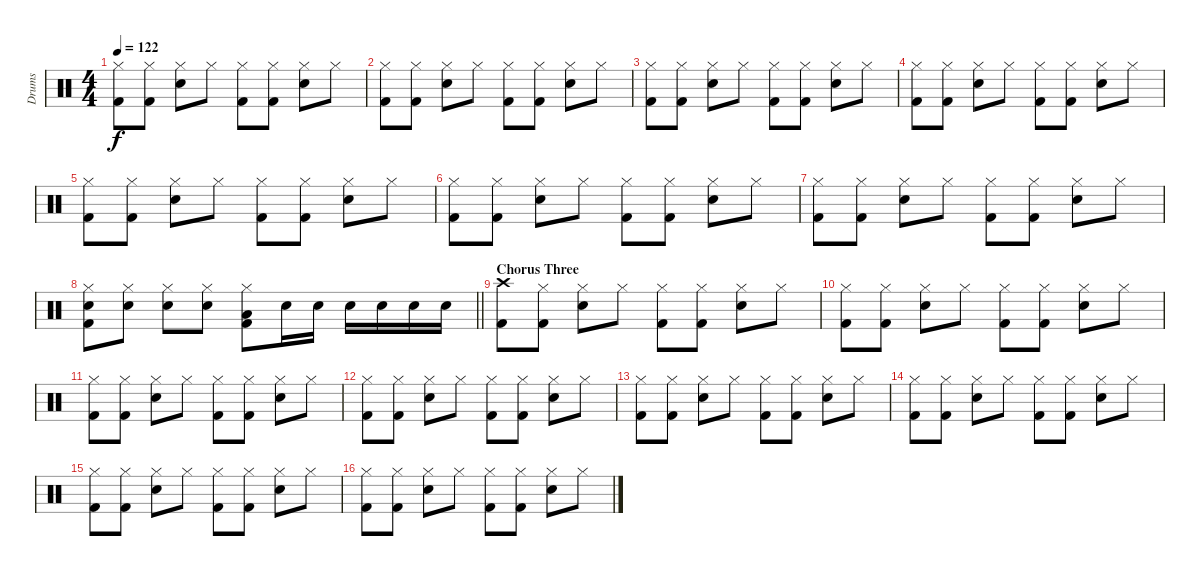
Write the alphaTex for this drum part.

\track ("Drums" "Drums") {instrument percussion}
\staff {score}
\articulation defaults
\ts (4 4)
\tempo 122
\clef neutral
\ks c
("Hi-Hat (closed)" "Kick (hit) 2").8{dy f} ("Hi-Hat (closed)" "Kick (hit) 2").8 ("Hi-Hat (closed)" "Snare (hit) 2").8 "Hi-Hat (closed)".8 ("Hi-Hat (closed)" "Kick (hit) 2").8 ("Hi-Hat (closed)" "Kick (hit) 2").8 ("Hi-Hat (closed)" "Snare (hit) 2").8 "Hi-Hat (closed)".8 |
("Hi-Hat (closed)" "Kick (hit) 2").8 ("Hi-Hat (closed)" "Kick (hit) 2").8 ("Hi-Hat (closed)" "Snare (hit) 2").8 "Hi-Hat (closed)".8 ("Hi-Hat (closed)" "Kick (hit) 2").8 ("Hi-Hat (closed)" "Kick (hit) 2").8 ("Hi-Hat (closed)" "Snare (hit) 2").8 "Hi-Hat (closed)".8 |
("Hi-Hat (closed)" "Kick (hit) 2").8 ("Hi-Hat (closed)" "Kick (hit) 2").8 ("Hi-Hat (closed)" "Snare (hit) 2").8 "Hi-Hat (closed)".8 ("Hi-Hat (closed)" "Kick (hit) 2").8 ("Hi-Hat (closed)" "Kick (hit) 2").8 ("Hi-Hat (closed)" "Snare (hit) 2").8 "Hi-Hat (closed)".8 |
("Hi-Hat (closed)" "Kick (hit) 2").8 ("Hi-Hat (closed)" "Kick (hit) 2").8 ("Hi-Hat (closed)" "Snare (hit) 2").8 "Hi-Hat (closed)".8 ("Hi-Hat (closed)" "Kick (hit) 2").8 ("Hi-Hat (closed)" "Kick (hit) 2").8 ("Hi-Hat (closed)" "Snare (hit) 2").8 "Hi-Hat (closed)".8 |
("Hi-Hat (closed)" "Kick (hit) 2").8 ("Hi-Hat (closed)" "Kick (hit) 2").8 ("Hi-Hat (closed)" "Snare (hit) 2").8 "Hi-Hat (closed)".8 ("Hi-Hat (closed)" "Kick (hit) 2").8 ("Hi-Hat (closed)" "Kick (hit) 2").8 ("Hi-Hat (closed)" "Snare (hit) 2").8 "Hi-Hat (closed)".8 |
("Hi-Hat (closed)" "Kick (hit) 2").8 ("Hi-Hat (closed)" "Kick (hit) 2").8 ("Hi-Hat (closed)" "Snare (hit) 2").8 "Hi-Hat (closed)".8 ("Hi-Hat (closed)" "Kick (hit) 2").8 ("Hi-Hat (closed)" "Kick (hit) 2").8 ("Hi-Hat (closed)" "Snare (hit) 2").8 "Hi-Hat (closed)".8 |
("Hi-Hat (closed)" "Kick (hit) 2").8 ("Hi-Hat (closed)" "Kick (hit) 2").8 ("Hi-Hat (closed)" "Snare (hit) 2").8 "Hi-Hat (closed)".8 ("Hi-Hat (closed)" "Kick (hit) 2").8 ("Hi-Hat (closed)" "Kick (hit) 2").8 ("Hi-Hat (closed)" "Snare (hit) 2").8 "Hi-Hat (closed)".8 |
\barLineRight lightlight
("Hi-Hat (closed)" "Snare (hit) 2" "Kick (hit) 2").8 ("Hi-Hat (closed)" "Snare (hit) 2").8 ("Hi-Hat (closed)" "Snare (hit) 2").8 ("Hi-Hat (closed)" "Snare (hit) 2").8 ("Hi-Hat (closed)" "Low Tom (hit)" "Kick (hit) 2").8 "Snare (hit) 2".16 "Snare (hit) 2".16 "Snare (hit) 2".16 "Snare (hit) 2".16 "Snare (hit) 2".16 "Snare (hit) 2".16 |
\section ("" "Chorus Three")
("Crash high (hit)" "Kick (hit) 2").8 ("Hi-Hat (closed)" "Kick (hit) 2").8 ("Hi-Hat (closed)" "Snare (hit) 2").8 "Hi-Hat (closed)".8 ("Hi-Hat (closed)" "Kick (hit) 2").8 ("Hi-Hat (closed)" "Kick (hit) 2").8 ("Hi-Hat (closed)" "Snare (hit) 2").8 "Hi-Hat (closed)".8 |
("Hi-Hat (closed)" "Kick (hit) 2").8 ("Hi-Hat (closed)" "Kick (hit) 2").8 ("Hi-Hat (closed)" "Snare (hit) 2").8 "Hi-Hat (closed)".8 ("Hi-Hat (closed)" "Kick (hit) 2").8 ("Hi-Hat (closed)" "Kick (hit) 2").8 ("Hi-Hat (closed)" "Snare (hit) 2").8 "Hi-Hat (closed)".8 |
("Hi-Hat (closed)" "Kick (hit) 2").8 ("Hi-Hat (closed)" "Kick (hit) 2").8 ("Hi-Hat (closed)" "Snare (hit) 2").8 "Hi-Hat (closed)".8 ("Hi-Hat (closed)" "Kick (hit) 2").8 ("Hi-Hat (closed)" "Kick (hit) 2").8 ("Hi-Hat (closed)" "Snare (hit) 2").8 "Hi-Hat (closed)".8 |
("Hi-Hat (closed)" "Kick (hit) 2").8 ("Hi-Hat (closed)" "Kick (hit) 2").8 ("Hi-Hat (closed)" "Snare (hit) 2").8 "Hi-Hat (closed)".8 ("Hi-Hat (closed)" "Kick (hit) 2").8 ("Hi-Hat (closed)" "Kick (hit) 2").8 ("Hi-Hat (closed)" "Snare (hit) 2").8 "Hi-Hat (closed)".8 |
("Hi-Hat (closed)" "Kick (hit) 2").8 ("Hi-Hat (closed)" "Kick (hit) 2").8 ("Hi-Hat (closed)" "Snare (hit) 2").8 "Hi-Hat (closed)".8 ("Hi-Hat (closed)" "Kick (hit) 2").8 ("Hi-Hat (closed)" "Kick (hit) 2").8 ("Hi-Hat (closed)" "Snare (hit) 2").8 "Hi-Hat (closed)".8 |
("Hi-Hat (closed)" "Kick (hit) 2").8 ("Hi-Hat (closed)" "Kick (hit) 2").8 ("Hi-Hat (closed)" "Snare (hit) 2").8 "Hi-Hat (closed)".8 ("Hi-Hat (closed)" "Kick (hit) 2").8 ("Hi-Hat (closed)" "Kick (hit) 2").8 ("Hi-Hat (closed)" "Snare (hit) 2").8 "Hi-Hat (closed)".8 |
("Hi-Hat (closed)" "Kick (hit) 2").8 ("Hi-Hat (closed)" "Kick (hit) 2").8 ("Hi-Hat (closed)" "Snare (hit) 2").8 "Hi-Hat (closed)".8 ("Hi-Hat (closed)" "Kick (hit) 2").8 ("Hi-Hat (closed)" "Kick (hit) 2").8 ("Hi-Hat (closed)" "Snare (hit) 2").8 "Hi-Hat (closed)".8 |
("Hi-Hat (closed)" "Kick (hit) 2").8 ("Hi-Hat (closed)" "Kick (hit) 2").8 ("Hi-Hat (closed)" "Snare (hit) 2").8 "Hi-Hat (closed)".8 ("Hi-Hat (closed)" "Kick (hit) 2").8 ("Hi-Hat (closed)" "Kick (hit) 2").8 ("Hi-Hat (closed)" "Snare (hit) 2").8 "Hi-Hat (closed)".8
